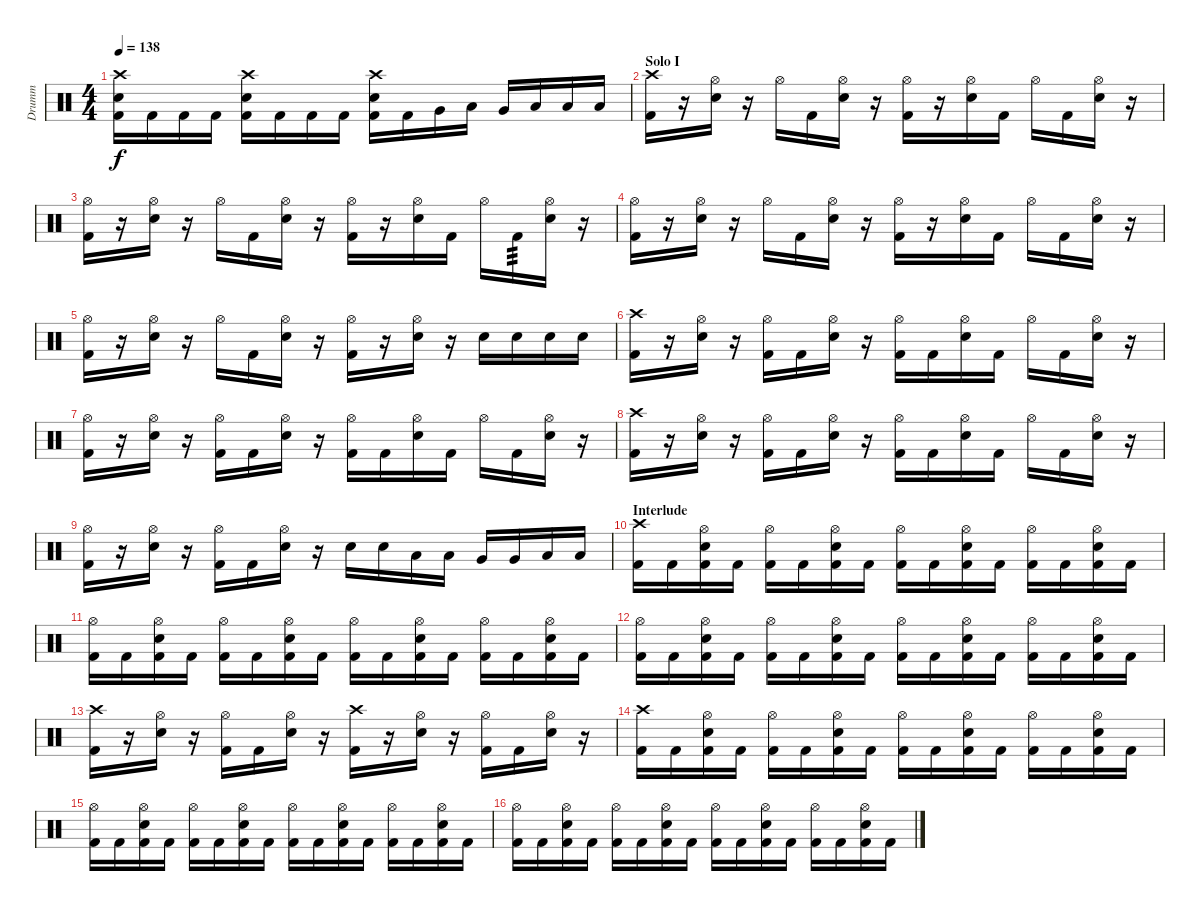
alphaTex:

\track ("Drumm" "Drumm") {instrument percussion}
\staff {score}
\articulation defaults
\ts (4 4)
\tempo 138
\clef neutral
\ks c
("Crash high (hit)" "Snare (hit) 2" "Kick (hit) 2").16{dy f} "Kick (hit) 2".16 "Kick (hit) 2".16 "Kick (hit) 2".16 ("Crash high (hit)" "Snare (hit) 2" "Kick (hit) 2").16 "Kick (hit) 2".16 "Kick (hit) 2".16 "Kick (hit) 2".16 ("Crash high (hit)" "Snare (hit) 2" "Kick (hit) 2").16 "Kick (hit) 2".16 "Very Low Tom (hit)".16 "Low Floor Tom (hit)".16 "Very Low Tom (hit)".16 "Low Floor Tom (hit)".16 "Low Floor Tom (hit)".16 "Low Floor Tom (hit)".16 |
\section ("" "Solo I")
("Crash high (hit)" "Kick (hit) 2").16 r.16 ("Hi-Hat (open)" "Snare (hit) 2").16 r.16 "Hi-Hat (open)".16 "Kick (hit) 2".16 ("Hi-Hat (open)" "Snare (hit) 2").16 r.16 ("Hi-Hat (open)" "Kick (hit) 2").16 r.16 ("Hi-Hat (open)" "Snare (hit) 2").16 "Kick (hit) 2".16 "Hi-Hat (open)".16 "Kick (hit) 2".16 ("Hi-Hat (open)" "Snare (hit) 2").16 r.16 |
("Hi-Hat (open)" "Kick (hit) 2").16 r.16 ("Hi-Hat (open)" "Snare (hit) 2").16 r.16 "Hi-Hat (open)".16 "Kick (hit) 2".16 ("Hi-Hat (open)" "Snare (hit) 2").16 r.16 ("Hi-Hat (open)" "Kick (hit) 2").16 r.16 ("Hi-Hat (open)" "Snare (hit) 2").16 "Kick (hit) 2".16 "Hi-Hat (open)".16 "Kick (hit) 2".16{tp 3} ("Hi-Hat (open)" "Snare (hit) 2").16 r.16 |
("Hi-Hat (open)" "Kick (hit) 2").16 r.16 ("Hi-Hat (open)" "Snare (hit) 2").16 r.16 "Hi-Hat (open)".16 "Kick (hit) 2".16 ("Hi-Hat (open)" "Snare (hit) 2").16 r.16 ("Hi-Hat (open)" "Kick (hit) 2").16 r.16 ("Hi-Hat (open)" "Snare (hit) 2").16 "Kick (hit) 2".16 "Hi-Hat (open)".16 "Kick (hit) 2".16 ("Hi-Hat (open)" "Snare (hit) 2").16 r.16 |
("Hi-Hat (open)" "Kick (hit) 2").16 r.16 ("Hi-Hat (open)" "Snare (hit) 2").16 r.16 "Hi-Hat (open)".16 "Kick (hit) 2".16 ("Hi-Hat (open)" "Snare (hit) 2").16 r.16 ("Hi-Hat (open)" "Kick (hit) 2").16 r.16 ("Hi-Hat (open)" "Snare (hit) 2").16 r.16 "Snare (hit) 2".16 "Snare (hit) 2".16 "Snare (hit) 2".16 "Snare (hit) 2".16 |
("Crash high (hit)" "Kick (hit) 2").16 r.16 ("Hi-Hat (open)" "Snare (hit) 2").16 r.16 ("Hi-Hat (open)" "Kick (hit) 2").16 "Kick (hit) 2".16 ("Hi-Hat (open)" "Snare (hit) 2").16 r.16 ("Hi-Hat (open)" "Kick (hit) 2").16 "Kick (hit) 2".16 ("Hi-Hat (open)" "Snare (hit) 2").16 "Kick (hit) 2".16 "Hi-Hat (open)".16 "Kick (hit) 2".16 ("Hi-Hat (open)" "Snare (hit) 2").16 r.16 |
("Hi-Hat (open)" "Kick (hit) 2").16 r.16 ("Hi-Hat (open)" "Snare (hit) 2").16 r.16 ("Hi-Hat (open)" "Kick (hit) 2").16 "Kick (hit) 2".16 ("Hi-Hat (open)" "Snare (hit) 2").16 r.16 ("Hi-Hat (open)" "Kick (hit) 2").16 "Kick (hit) 2".16 ("Hi-Hat (open)" "Snare (hit) 2").16 "Kick (hit) 2".16 "Hi-Hat (open)".16 "Kick (hit) 2".16 ("Hi-Hat (open)" "Snare (hit) 2").16 r.16 |
("Crash high (hit)" "Kick (hit) 2").16 r.16 ("Hi-Hat (open)" "Snare (hit) 2").16 r.16 ("Hi-Hat (open)" "Kick (hit) 2").16 "Kick (hit) 2".16 ("Hi-Hat (open)" "Snare (hit) 2").16 r.16 ("Hi-Hat (open)" "Kick (hit) 2").16 "Kick (hit) 2".16 ("Hi-Hat (open)" "Snare (hit) 2").16 "Kick (hit) 2".16 "Hi-Hat (open)".16 "Kick (hit) 2".16 ("Hi-Hat (open)" "Snare (hit) 2").16 r.16 |
("Hi-Hat (open)" "Kick (hit) 2").16 r.16 ("Hi-Hat (open)" "Snare (hit) 2").16 r.16 ("Hi-Hat (open)" "Kick (hit) 2").16 "Kick (hit) 2".16 ("Hi-Hat (open)" "Snare (hit) 2").16 r.16 "Snare (hit) 2".16 "Snare (hit) 2".16 "Low Tom (hit)".16 "Low Tom (hit)".16 "Very Low Tom (hit)".16 "Very Low Tom (hit)".16 "Low Floor Tom (hit)".16 "Low Floor Tom (hit)".16 |
\section ("" "Interlude")
("Crash high (hit)" "Kick (hit) 2").16 "Kick (hit) 2".16 ("Hi-Hat (open)" "Snare (hit) 2" "Kick (hit) 2").16 "Kick (hit) 2".16 ("Hi-Hat (open)" "Kick (hit) 2").16 "Kick (hit) 2".16 ("Hi-Hat (open)" "Snare (hit) 2" "Kick (hit) 2").16 "Kick (hit) 2".16 ("Hi-Hat (open)" "Kick (hit) 2").16 "Kick (hit) 2".16 ("Hi-Hat (open)" "Snare (hit) 2" "Kick (hit) 2").16 "Kick (hit) 2".16 ("Hi-Hat (open)" "Kick (hit) 2").16 "Kick (hit) 2".16 ("Hi-Hat (open)" "Snare (hit) 2" "Kick (hit) 2").16 "Kick (hit) 2".16 |
("Hi-Hat (open)" "Kick (hit) 2").16 "Kick (hit) 2".16 ("Hi-Hat (open)" "Snare (hit) 2" "Kick (hit) 2").16 "Kick (hit) 2".16 ("Hi-Hat (open)" "Kick (hit) 2").16 "Kick (hit) 2".16 ("Hi-Hat (open)" "Snare (hit) 2" "Kick (hit) 2").16 "Kick (hit) 2".16 ("Hi-Hat (open)" "Kick (hit) 2").16 "Kick (hit) 2".16 ("Hi-Hat (open)" "Snare (hit) 2" "Kick (hit) 2").16 "Kick (hit) 2".16 ("Hi-Hat (open)" "Kick (hit) 2").16 "Kick (hit) 2".16 ("Hi-Hat (open)" "Snare (hit) 2" "Kick (hit) 2").16 "Kick (hit) 2".16 |
("Hi-Hat (open)" "Kick (hit) 2").16 "Kick (hit) 2".16 ("Hi-Hat (open)" "Snare (hit) 2" "Kick (hit) 2").16 "Kick (hit) 2".16 ("Hi-Hat (open)" "Kick (hit) 2").16 "Kick (hit) 2".16 ("Hi-Hat (open)" "Snare (hit) 2" "Kick (hit) 2").16 "Kick (hit) 2".16 ("Hi-Hat (open)" "Kick (hit) 2").16 "Kick (hit) 2".16 ("Hi-Hat (open)" "Snare (hit) 2" "Kick (hit) 2").16 "Kick (hit) 2".16 ("Hi-Hat (open)" "Kick (hit) 2").16 "Kick (hit) 2".16 ("Hi-Hat (open)" "Snare (hit) 2" "Kick (hit) 2").16 "Kick (hit) 2".16 |
("Crash high (hit)" "Kick (hit) 2").16 r.16 ("Hi-Hat (open)" "Snare (hit) 2").16 r.16 ("Hi-Hat (open)" "Kick (hit) 2").16 "Kick (hit) 2".16 ("Hi-Hat (open)" "Snare (hit) 2").16 r.16 ("Crash high (hit)" "Kick (hit) 2").16 r.16 ("Hi-Hat (open)" "Snare (hit) 2").16 r.16 ("Hi-Hat (open)" "Kick (hit) 2").16 "Kick (hit) 2".16 ("Hi-Hat (open)" "Snare (hit) 2").16 r.16 |
("Crash high (hit)" "Kick (hit) 2").16 "Kick (hit) 2".16 ("Hi-Hat (open)" "Snare (hit) 2" "Kick (hit) 2").16 "Kick (hit) 2".16 ("Hi-Hat (open)" "Kick (hit) 2").16 "Kick (hit) 2".16 ("Hi-Hat (open)" "Snare (hit) 2" "Kick (hit) 2").16 "Kick (hit) 2".16 ("Hi-Hat (open)" "Kick (hit) 2").16 "Kick (hit) 2".16 ("Hi-Hat (open)" "Snare (hit) 2" "Kick (hit) 2").16 "Kick (hit) 2".16 ("Hi-Hat (open)" "Kick (hit) 2").16 "Kick (hit) 2".16 ("Hi-Hat (open)" "Snare (hit) 2" "Kick (hit) 2").16 "Kick (hit) 2".16 |
("Hi-Hat (open)" "Kick (hit) 2").16 "Kick (hit) 2".16 ("Hi-Hat (open)" "Snare (hit) 2" "Kick (hit) 2").16 "Kick (hit) 2".16 ("Hi-Hat (open)" "Kick (hit) 2").16 "Kick (hit) 2".16 ("Hi-Hat (open)" "Snare (hit) 2" "Kick (hit) 2").16 "Kick (hit) 2".16 ("Hi-Hat (open)" "Kick (hit) 2").16 "Kick (hit) 2".16 ("Hi-Hat (open)" "Snare (hit) 2" "Kick (hit) 2").16 "Kick (hit) 2".16 ("Hi-Hat (open)" "Kick (hit) 2").16 "Kick (hit) 2".16 ("Hi-Hat (open)" "Snare (hit) 2" "Kick (hit) 2").16 "Kick (hit) 2".16 |
("Hi-Hat (open)" "Kick (hit) 2").16 "Kick (hit) 2".16 ("Hi-Hat (open)" "Snare (hit) 2" "Kick (hit) 2").16 "Kick (hit) 2".16 ("Hi-Hat (open)" "Kick (hit) 2").16 "Kick (hit) 2".16 ("Hi-Hat (open)" "Snare (hit) 2" "Kick (hit) 2").16 "Kick (hit) 2".16 ("Hi-Hat (open)" "Kick (hit) 2").16 "Kick (hit) 2".16 ("Hi-Hat (open)" "Snare (hit) 2" "Kick (hit) 2").16 "Kick (hit) 2".16 ("Hi-Hat (open)" "Kick (hit) 2").16 "Kick (hit) 2".16 ("Hi-Hat (open)" "Snare (hit) 2" "Kick (hit) 2").16 "Kick (hit) 2".16
